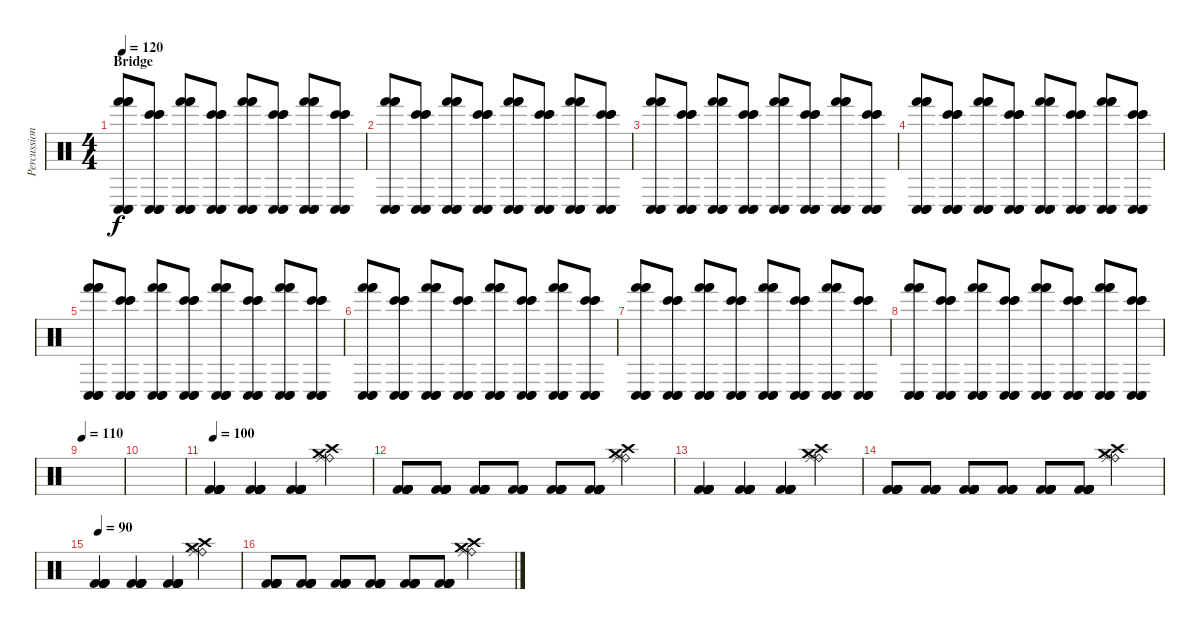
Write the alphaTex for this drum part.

\track ("Percussion" "Percussion") {instrument percussion}
\staff {score}
\articulation defaults
\ts (4 4)
\section ("" "Bridge")
\tempo 120
\clef neutral
\ks c
("Hand (hit)" "Hand (hit)" "Hand (hit)" "Conga low (hit)" "Conga low (hit)" "Conga low (hit)").8{dy f} ("Bongo High (hit)" "Bongo High (hit)" "Bongo High (hit)" "Conga low (hit)" "Conga low (hit)" "Conga low (hit)").8 ("Hand (hit)" "Hand (hit)" "Hand (hit)" "Conga low (hit)" "Conga low (hit)" "Conga low (hit)").8 ("Bongo High (hit)" "Bongo High (hit)" "Bongo High (hit)" "Conga low (hit)" "Conga low (hit)" "Conga low (hit)").8 ("Hand (hit)" "Hand (hit)" "Hand (hit)" "Conga low (hit)" "Conga low (hit)" "Conga low (hit)").8 ("Bongo High (hit)" "Bongo High (hit)" "Bongo High (hit)" "Conga low (hit)" "Conga low (hit)" "Conga low (hit)").8 ("Hand (hit)" "Hand (hit)" "Hand (hit)" "Conga low (hit)" "Conga low (hit)" "Conga low (hit)").8 ("Bongo High (hit)" "Bongo High (hit)" "Bongo High (hit)" "Conga low (hit)" "Conga low (hit)" "Conga low (hit)").8 |
("Hand (hit)" "Hand (hit)" "Hand (hit)" "Conga low (hit)" "Conga low (hit)" "Conga low (hit)").8 ("Bongo High (hit)" "Bongo High (hit)" "Bongo High (hit)" "Conga low (hit)" "Conga low (hit)" "Conga low (hit)").8 ("Hand (hit)" "Hand (hit)" "Hand (hit)" "Conga low (hit)" "Conga low (hit)" "Conga low (hit)").8 ("Bongo High (hit)" "Bongo High (hit)" "Bongo High (hit)" "Conga low (hit)" "Conga low (hit)" "Conga low (hit)").8 ("Hand (hit)" "Hand (hit)" "Hand (hit)" "Conga low (hit)" "Conga low (hit)" "Conga low (hit)").8 ("Bongo High (hit)" "Bongo High (hit)" "Bongo High (hit)" "Conga low (hit)" "Conga low (hit)" "Conga low (hit)").8 ("Hand (hit)" "Hand (hit)" "Hand (hit)" "Conga low (hit)" "Conga low (hit)" "Conga low (hit)").8 ("Bongo High (hit)" "Bongo High (hit)" "Bongo High (hit)" "Conga low (hit)" "Conga low (hit)" "Conga low (hit)").8 |
("Hand (hit)" "Hand (hit)" "Hand (hit)" "Conga low (hit)" "Conga low (hit)" "Conga low (hit)").8 ("Bongo High (hit)" "Bongo High (hit)" "Bongo High (hit)" "Conga low (hit)" "Conga low (hit)" "Conga low (hit)").8 ("Hand (hit)" "Hand (hit)" "Hand (hit)" "Conga low (hit)" "Conga low (hit)" "Conga low (hit)").8 ("Bongo High (hit)" "Bongo High (hit)" "Bongo High (hit)" "Conga low (hit)" "Conga low (hit)" "Conga low (hit)").8 ("Hand (hit)" "Hand (hit)" "Hand (hit)" "Conga low (hit)" "Conga low (hit)" "Conga low (hit)").8 ("Bongo High (hit)" "Bongo High (hit)" "Bongo High (hit)" "Conga low (hit)" "Conga low (hit)" "Conga low (hit)").8 ("Hand (hit)" "Hand (hit)" "Hand (hit)" "Conga low (hit)" "Conga low (hit)" "Conga low (hit)").8 ("Bongo High (hit)" "Bongo High (hit)" "Bongo High (hit)" "Conga low (hit)" "Conga low (hit)" "Conga low (hit)").8 |
("Hand (hit)" "Hand (hit)" "Hand (hit)" "Conga low (hit)" "Conga low (hit)" "Conga low (hit)").8 ("Bongo High (hit)" "Bongo High (hit)" "Bongo High (hit)" "Conga low (hit)" "Conga low (hit)" "Conga low (hit)").8 ("Hand (hit)" "Hand (hit)" "Hand (hit)" "Conga low (hit)" "Conga low (hit)" "Conga low (hit)").8 ("Bongo High (hit)" "Bongo High (hit)" "Bongo High (hit)" "Conga low (hit)" "Conga low (hit)" "Conga low (hit)").8 ("Hand (hit)" "Hand (hit)" "Hand (hit)" "Conga low (hit)" "Conga low (hit)" "Conga low (hit)").8 ("Bongo High (hit)" "Bongo High (hit)" "Bongo High (hit)" "Conga low (hit)" "Conga low (hit)" "Conga low (hit)").8 ("Hand (hit)" "Hand (hit)" "Hand (hit)" "Conga low (hit)" "Conga low (hit)" "Conga low (hit)").8 ("Bongo High (hit)" "Bongo High (hit)" "Bongo High (hit)" "Conga low (hit)" "Conga low (hit)" "Conga low (hit)").8 |
("Hand (hit)" "Hand (hit)" "Hand (hit)" "Conga low (hit)" "Conga low (hit)" "Conga low (hit)").8 ("Bongo High (hit)" "Bongo High (hit)" "Bongo High (hit)" "Conga low (hit)" "Conga low (hit)" "Conga low (hit)").8 ("Hand (hit)" "Hand (hit)" "Hand (hit)" "Conga low (hit)" "Conga low (hit)" "Conga low (hit)").8 ("Bongo High (hit)" "Bongo High (hit)" "Bongo High (hit)" "Conga low (hit)" "Conga low (hit)" "Conga low (hit)").8 ("Hand (hit)" "Hand (hit)" "Hand (hit)" "Conga low (hit)" "Conga low (hit)" "Conga low (hit)").8 ("Bongo High (hit)" "Bongo High (hit)" "Bongo High (hit)" "Conga low (hit)" "Conga low (hit)" "Conga low (hit)").8 ("Hand (hit)" "Hand (hit)" "Hand (hit)" "Conga low (hit)" "Conga low (hit)" "Conga low (hit)").8 ("Bongo High (hit)" "Bongo High (hit)" "Bongo High (hit)" "Conga low (hit)" "Conga low (hit)" "Conga low (hit)").8 |
("Hand (hit)" "Hand (hit)" "Hand (hit)" "Conga low (hit)" "Conga low (hit)" "Conga low (hit)").8 ("Bongo High (hit)" "Bongo High (hit)" "Bongo High (hit)" "Conga low (hit)" "Conga low (hit)" "Conga low (hit)").8 ("Hand (hit)" "Hand (hit)" "Hand (hit)" "Conga low (hit)" "Conga low (hit)" "Conga low (hit)").8 ("Bongo High (hit)" "Bongo High (hit)" "Bongo High (hit)" "Conga low (hit)" "Conga low (hit)" "Conga low (hit)").8 ("Hand (hit)" "Hand (hit)" "Hand (hit)" "Conga low (hit)" "Conga low (hit)" "Conga low (hit)").8 ("Bongo High (hit)" "Bongo High (hit)" "Bongo High (hit)" "Conga low (hit)" "Conga low (hit)" "Conga low (hit)").8 ("Hand (hit)" "Hand (hit)" "Hand (hit)" "Conga low (hit)" "Conga low (hit)" "Conga low (hit)").8 ("Bongo High (hit)" "Bongo High (hit)" "Bongo High (hit)" "Conga low (hit)" "Conga low (hit)" "Conga low (hit)").8 |
("Hand (hit)" "Hand (hit)" "Hand (hit)" "Conga low (hit)" "Conga low (hit)" "Conga low (hit)").8 ("Bongo High (hit)" "Bongo High (hit)" "Bongo High (hit)" "Conga low (hit)" "Conga low (hit)" "Conga low (hit)").8 ("Hand (hit)" "Hand (hit)" "Hand (hit)" "Conga low (hit)" "Conga low (hit)" "Conga low (hit)").8 ("Bongo High (hit)" "Bongo High (hit)" "Bongo High (hit)" "Conga low (hit)" "Conga low (hit)" "Conga low (hit)").8 ("Hand (hit)" "Hand (hit)" "Hand (hit)" "Conga low (hit)" "Conga low (hit)" "Conga low (hit)").8 ("Bongo High (hit)" "Bongo High (hit)" "Bongo High (hit)" "Conga low (hit)" "Conga low (hit)" "Conga low (hit)").8 ("Hand (hit)" "Hand (hit)" "Hand (hit)" "Conga low (hit)" "Conga low (hit)" "Conga low (hit)").8 ("Bongo High (hit)" "Bongo High (hit)" "Bongo High (hit)" "Conga low (hit)" "Conga low (hit)" "Conga low (hit)").8 |
("Hand (hit)" "Hand (hit)" "Hand (hit)" "Conga low (hit)" "Conga low (hit)" "Conga low (hit)").8 ("Bongo High (hit)" "Bongo High (hit)" "Bongo High (hit)" "Conga low (hit)" "Conga low (hit)" "Conga low (hit)").8 ("Hand (hit)" "Hand (hit)" "Hand (hit)" "Conga low (hit)" "Conga low (hit)" "Conga low (hit)").8 ("Bongo High (hit)" "Bongo High (hit)" "Bongo High (hit)" "Conga low (hit)" "Conga low (hit)" "Conga low (hit)").8 ("Hand (hit)" "Hand (hit)" "Hand (hit)" "Conga low (hit)" "Conga low (hit)" "Conga low (hit)").8 ("Bongo High (hit)" "Bongo High (hit)" "Bongo High (hit)" "Conga low (hit)" "Conga low (hit)" "Conga low (hit)").8 ("Hand (hit)" "Hand (hit)" "Hand (hit)" "Conga low (hit)" "Conga low (hit)" "Conga low (hit)").8 ("Bongo High (hit)" "Bongo High (hit)" "Bongo High (hit)" "Conga low (hit)" "Conga low (hit)" "Conga low (hit)").8 |
\tempo 110
|
|
\tempo 100
("Kick (hit) 2" "Kick (hit) 2" "Kick (hit) 2" "Kick (hit) 2" "Kick (hit) 2" "Kick (hit) 2").4 ("Kick (hit) 2" "Kick (hit) 2" "Kick (hit) 2" "Kick (hit) 2" "Kick (hit) 2" "Kick (hit) 2").4 ("Kick (hit) 2" "Kick (hit) 2" "Kick (hit) 2" "Kick (hit) 2" "Kick (hit) 2" "Kick (hit) 2").4 ("Crash high (hit)" "Ride (bell)" "Ride (middle)" "Crash medium (hit)").4 |
("Kick (hit) 2" "Kick (hit) 2" "Kick (hit) 2" "Kick (hit) 2" "Kick (hit) 2" "Kick (hit) 2").8 ("Kick (hit) 2" "Kick (hit) 2" "Kick (hit) 2" "Kick (hit) 2" "Kick (hit) 2" "Kick (hit) 2").8 ("Kick (hit) 2" "Kick (hit) 2" "Kick (hit) 2" "Kick (hit) 2" "Kick (hit) 2" "Kick (hit) 2").8 ("Kick (hit) 2" "Kick (hit) 2" "Kick (hit) 2" "Kick (hit) 2" "Kick (hit) 2" "Kick (hit) 2").8 ("Kick (hit) 2" "Kick (hit) 2" "Kick (hit) 2" "Kick (hit) 2" "Kick (hit) 2" "Kick (hit) 2").8 ("Kick (hit) 2" "Kick (hit) 2" "Kick (hit) 2" "Kick (hit) 2" "Kick (hit) 2" "Kick (hit) 2").8 ("Crash high (hit)" "Ride (bell)" "Ride (middle)" "Crash medium (hit)").4 |
("Kick (hit) 2" "Kick (hit) 2" "Kick (hit) 2" "Kick (hit) 2" "Kick (hit) 2" "Kick (hit) 2").4 ("Kick (hit) 2" "Kick (hit) 2" "Kick (hit) 2" "Kick (hit) 2" "Kick (hit) 2" "Kick (hit) 2").4 ("Kick (hit) 2" "Kick (hit) 2" "Kick (hit) 2" "Kick (hit) 2" "Kick (hit) 2" "Kick (hit) 2").4 ("Crash high (hit)" "Ride (bell)" "Ride (middle)" "Crash medium (hit)").4 |
("Kick (hit) 2" "Kick (hit) 2" "Kick (hit) 2" "Kick (hit) 2" "Kick (hit) 2" "Kick (hit) 2").8 ("Kick (hit) 2" "Kick (hit) 2" "Kick (hit) 2" "Kick (hit) 2" "Kick (hit) 2" "Kick (hit) 2").8 ("Kick (hit) 2" "Kick (hit) 2" "Kick (hit) 2" "Kick (hit) 2" "Kick (hit) 2" "Kick (hit) 2").8 ("Kick (hit) 2" "Kick (hit) 2" "Kick (hit) 2" "Kick (hit) 2" "Kick (hit) 2" "Kick (hit) 2").8 ("Kick (hit) 2" "Kick (hit) 2" "Kick (hit) 2" "Kick (hit) 2" "Kick (hit) 2" "Kick (hit) 2").8 ("Kick (hit) 2" "Kick (hit) 2" "Kick (hit) 2" "Kick (hit) 2" "Kick (hit) 2" "Kick (hit) 2").8 ("Crash high (hit)" "Ride (bell)" "Ride (middle)" "Crash medium (hit)").4 |
\tempo 90
("Kick (hit) 2" "Kick (hit) 2" "Kick (hit) 2" "Kick (hit) 2" "Kick (hit) 2" "Kick (hit) 2").4 ("Kick (hit) 2" "Kick (hit) 2" "Kick (hit) 2" "Kick (hit) 2" "Kick (hit) 2" "Kick (hit) 2").4 ("Kick (hit) 2" "Kick (hit) 2" "Kick (hit) 2" "Kick (hit) 2" "Kick (hit) 2" "Kick (hit) 2").4 ("Crash high (hit)" "Ride (bell)" "Ride (middle)" "Crash medium (hit)").4 |
("Kick (hit) 2" "Kick (hit) 2" "Kick (hit) 2" "Kick (hit) 2" "Kick (hit) 2" "Kick (hit) 2").8 ("Kick (hit) 2" "Kick (hit) 2" "Kick (hit) 2" "Kick (hit) 2" "Kick (hit) 2" "Kick (hit) 2").8 ("Kick (hit) 2" "Kick (hit) 2" "Kick (hit) 2" "Kick (hit) 2" "Kick (hit) 2" "Kick (hit) 2").8 ("Kick (hit) 2" "Kick (hit) 2" "Kick (hit) 2" "Kick (hit) 2" "Kick (hit) 2" "Kick (hit) 2").8 ("Kick (hit) 2" "Kick (hit) 2" "Kick (hit) 2" "Kick (hit) 2" "Kick (hit) 2" "Kick (hit) 2").8 ("Kick (hit) 2" "Kick (hit) 2" "Kick (hit) 2" "Kick (hit) 2" "Kick (hit) 2" "Kick (hit) 2").8 ("Crash high (hit)" "Ride (bell)" "Ride (middle)" "Crash medium (hit)").4
